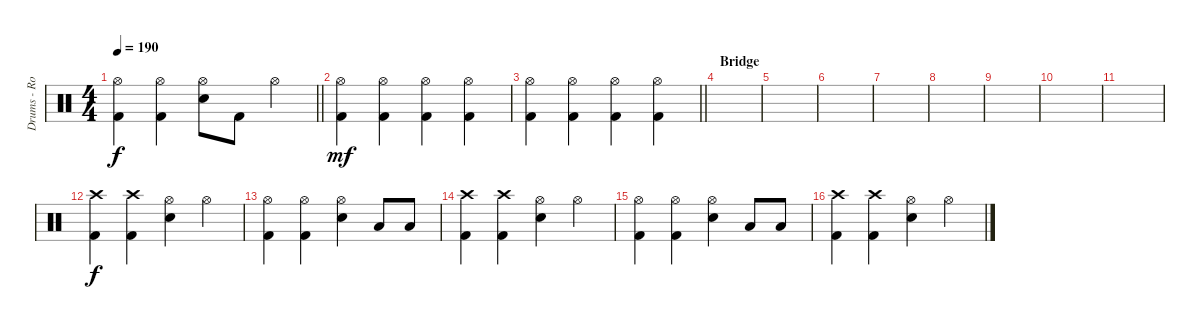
\track ("Drums - Rob Bourdon" "Drums - Ro") {instrument percussion}
\staff {score}
\articulation defaults
\ts (4 4)
\tempo 190
\clef neutral
\barLineRight lightlight
\ks c
("Hi-Hat (open)" "Kick (hit) 2").4{dy f} ("Hi-Hat (open)" "Kick (hit) 2").4 ("Hi-Hat (open)" "Snare (hit) 2").8 "Kick (hit) 2".8 "Hi-Hat (open)".4 |
("Hi-Hat (open)" "Kick (hit) 2").4{dy mf} ("Hi-Hat (open)" "Kick (hit) 2").4 ("Hi-Hat (open)" "Kick (hit) 2").4 ("Hi-Hat (open)" "Kick (hit) 2").4 |
\barLineRight lightlight
("Hi-Hat (open)" "Kick (hit) 2").4 ("Hi-Hat (open)" "Kick (hit) 2").4 ("Hi-Hat (open)" "Kick (hit) 2").4 ("Hi-Hat (open)" "Kick (hit) 2").4 |
\section ("" "Bridge")
|
|
|
|
|
|
|
|
("Crash high (hit)" "Kick (hit) 2").4{dy f} ("Crash high (hit)" "Kick (hit) 2").4 ("Hi-Hat (open)" "Snare (hit) 2").4 "Hi-Hat (open)".4 |
("Hi-Hat (open)" "Kick (hit) 2").4 ("Hi-Hat (open)" "Kick (hit) 2").4 ("Hi-Hat (open)" "Snare (hit) 2").4 "Low Tom (hit)".8 "Low Tom (hit)".8 |
("Crash high (hit)" "Kick (hit) 2").4 ("Crash high (hit)" "Kick (hit) 2").4 ("Hi-Hat (open)" "Snare (hit) 2").4 "Hi-Hat (open)".4 |
("Hi-Hat (open)" "Kick (hit) 2").4 ("Hi-Hat (open)" "Kick (hit) 2").4 ("Hi-Hat (open)" "Snare (hit) 2").4 "Low Tom (hit)".8 "Low Tom (hit)".8 |
("Crash high (hit)" "Kick (hit) 2").4 ("Crash high (hit)" "Kick (hit) 2").4 ("Hi-Hat (open)" "Snare (hit) 2").4 "Hi-Hat (open)".4
